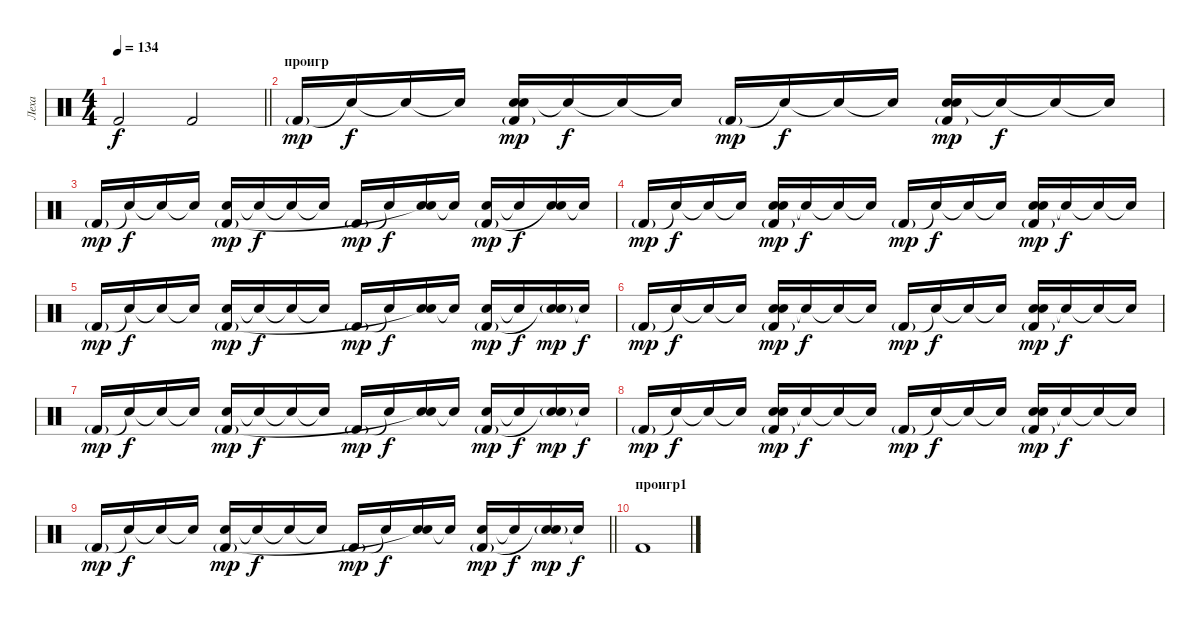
\track ("Леха" "Леха") {instrument percussion}
\staff {score}
\articulation defaults
\ts (4 4)
\tempo 134
\clef neutral
\barLineRight lightlight
\ks c "Kick (hit) 2".2{dy f} "Kick (hit) 2".2
|
\section ("" "проигр")
"Kick (hit) 2"{g}.16{dy mp} "Snare (hit)"{t}.16{dy f} "Snare (hit)"{t}.16 "Snare (hit)"{t}.16 ("Hand Clap (hit)" "Hand Clap (hit)" "Kick (hit) 2"{g}).16{dy mp} "Snare (hit)"{t}.16{dy f} "Snare (hit)"{t}.16 "Snare (hit)"{t}.16 "Kick (hit) 2"{g}.16{dy mp} "Snare (hit)"{t}.16{dy f} "Snare (hit)"{t}.16 "Snare (hit)"{t}.16 ("Hand Clap (hit)" "Hand Clap (hit)" "Kick (hit) 2"{g}).16{dy mp} "Snare (hit)"{t}.16{dy f} "Snare (hit)"{t}.16 "Snare (hit)"{t}.16 |
"Kick (hit) 2"{g}.16{dy mp} "Snare (hit)"{t}.16{dy f} "Snare (hit)"{t}.16 "Snare (hit)"{t}.16 ("Hand Clap (hit)" "Kick (hit) 2"{g}).16{dy mp} "Snare (hit)"{t}.16{dy f} "Snare (hit)"{t}.16 "Snare (hit)"{t}.16 "Kick (hit) 2"{g}.16{dy mp} "Snare (hit)"{t}.16{dy f} ("Hand Clap (hit)" "Snare (hit)"{t}).16 "Snare (hit)"{t}.16 ("Hand Clap (hit)" "Kick (hit) 2"{g}).16{dy mp} "Snare (hit)"{t}.16{dy f} ("Hand Clap (hit)" "Snare (hit)"{t}).16 "Snare (hit)"{t}.16 |
"Kick (hit) 2"{g}.16{dy mp} "Snare (hit)"{t}.16{dy f} "Snare (hit)"{t}.16 "Snare (hit)"{t}.16 ("Hand Clap (hit)" "Hand Clap (hit)" "Kick (hit) 2"{g}).16{dy mp} "Snare (hit)"{t}.16{dy f} "Snare (hit)"{t}.16 "Snare (hit)"{t}.16 "Kick (hit) 2"{g}.16{dy mp} "Snare (hit)"{t}.16{dy f} "Snare (hit)"{t}.16 "Snare (hit)"{t}.16 ("Hand Clap (hit)" "Hand Clap (hit)" "Kick (hit) 2"{g}).16{dy mp} "Snare (hit)"{t}.16{dy f} "Snare (hit)"{t}.16 "Snare (hit)"{t}.16 |
"Kick (hit) 2"{g}.16{dy mp} "Snare (hit)"{t}.16{dy f} "Snare (hit)"{t}.16 "Snare (hit)"{t}.16 ("Hand Clap (hit)" "Kick (hit) 2"{g}).16{dy mp} "Snare (hit)"{t}.16{dy f} "Snare (hit)"{t}.16 "Snare (hit)"{t}.16 "Kick (hit) 2"{g}.16{dy mp} "Snare (hit)"{t}.16{dy f} ("Hand Clap (hit)" "Snare (hit)"{t}).16 "Snare (hit)"{t}.16 ("Hand Clap (hit)" "Kick (hit) 2"{g}).16{dy mp} "Snare (hit)"{t}.16{dy f} ("Hand Clap (hit)"{g} "Snare (hit)"{t}).16{dy mp} "Snare (hit)"{t}.16{dy f} |
"Kick (hit) 2"{g}.16{dy mp} "Snare (hit)"{t}.16{dy f} "Snare (hit)"{t}.16 "Snare (hit)"{t}.16 ("Hand Clap (hit)" "Hand Clap (hit)" "Kick (hit) 2"{g}).16{dy mp} "Snare (hit)"{t}.16{dy f} "Snare (hit)"{t}.16 "Snare (hit)"{t}.16 "Kick (hit) 2"{g}.16{dy mp} "Snare (hit)"{t}.16{dy f} "Snare (hit)"{t}.16 "Snare (hit)"{t}.16 ("Hand Clap (hit)" "Hand Clap (hit)" "Kick (hit) 2"{g}).16{dy mp} "Snare (hit)"{t}.16{dy f} "Snare (hit)"{t}.16 "Snare (hit)"{t}.16 |
"Kick (hit) 2"{g}.16{dy mp} "Snare (hit)"{t}.16{dy f} "Snare (hit)"{t}.16 "Snare (hit)"{t}.16 ("Hand Clap (hit)" "Kick (hit) 2"{g}).16{dy mp} "Snare (hit)"{t}.16{dy f} "Snare (hit)"{t}.16 "Snare (hit)"{t}.16 "Kick (hit) 2"{g}.16{dy mp} "Snare (hit)"{t}.16{dy f} ("Hand Clap (hit)" "Snare (hit)"{t}).16 "Snare (hit)"{t}.16 ("Hand Clap (hit)" "Kick (hit) 2"{g}).16{dy mp} "Snare (hit)"{t}.16{dy f} ("Hand Clap (hit)"{g} "Snare (hit)"{t}).16{dy mp} "Snare (hit)"{t}.16{dy f} |
"Kick (hit) 2"{g}.16{dy mp} "Snare (hit)"{t}.16{dy f} "Snare (hit)"{t}.16 "Snare (hit)"{t}.16 ("Hand Clap (hit)" "Hand Clap (hit)" "Kick (hit) 2"{g}).16{dy mp} "Snare (hit)"{t}.16{dy f} "Snare (hit)"{t}.16 "Snare (hit)"{t}.16 "Kick (hit) 2"{g}.16{dy mp} "Snare (hit)"{t}.16{dy f} "Snare (hit)"{t}.16 "Snare (hit)"{t}.16 ("Hand Clap (hit)" "Hand Clap (hit)" "Kick (hit) 2"{g}).16{dy mp} "Snare (hit)"{t}.16{dy f} "Snare (hit)"{t}.16 "Snare (hit)"{t}.16 |
\barLineRight lightlight "Kick (hit) 2"{g}.16{dy mp} "Snare (hit)"{t}.16{dy f} "Snare (hit)"{t}.16 "Snare (hit)"{t}.16
("Hand Clap (hit)" "Kick (hit) 2"{g}).16{dy mp} "Snare (hit)"{t}.16{dy f} "Snare (hit)"{t}.16 "Snare (hit)"{t}.16 "Kick (hit) 2"{g}.16{dy mp} "Snare (hit)"{t}.16{dy f} ("Hand Clap (hit)" "Snare (hit)"{t}).16 "Snare (hit)"{t}.16 ("Hand Clap (hit)" "Kick (hit) 2"{g}).16{dy mp} "Snare (hit)"{t}.16{dy f} ("Hand Clap (hit)"{g} "Snare (hit)"{t}).16{dy mp} "Snare (hit)"{t}.16{dy f} |
\section ("" "проигр1")
"Kick (hit) 2".1
